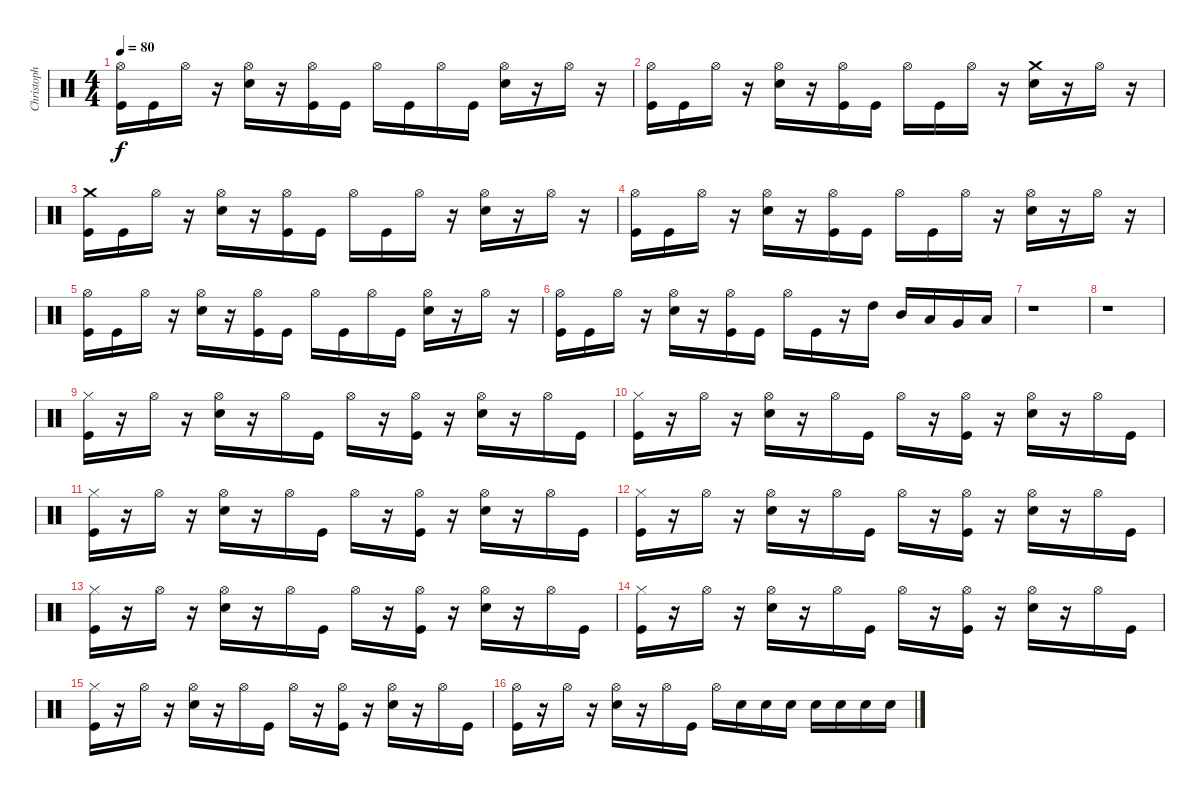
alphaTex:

\track ("Christoph DOOM Schneider" "Christoph ") {instrument percussion}
\staff {score}
\articulation defaults
\ts (4 4)
\tempo 80
\clef neutral
\ks c
("Hi-Hat (open)" "Kick (hit)").16{dy f} "Kick (hit)".16 "Hi-Hat (open)".16 r.16 ("Electric Snare (hit)" "Hi-Hat (open)").16 r.16 ("Hi-Hat (open)" "Kick (hit)").16 "Kick (hit)".16 "Hi-Hat (open)".16 "Kick (hit)".16 "Hi-Hat (open)".16 "Kick (hit)".16 ("Electric Snare (hit)" "Hi-Hat (open)").16 r.16 "Hi-Hat (open)".16 r.16 |
("Hi-Hat (open)" "Kick (hit)").16 "Kick (hit)".16 "Hi-Hat (open)".16 r.16 ("Electric Snare (hit)" "Hi-Hat (open)").16 r.16 ("Hi-Hat (open)" "Kick (hit)").16 "Kick (hit)".16 "Hi-Hat (open)".16 "Kick (hit)".16 "Hi-Hat (open)".16 r.16 ("Electric Snare (hit)" "Crash medium (hit)").16 r.16 "Hi-Hat (open)".16 r.16 |
("Crash medium (hit)" "Kick (hit)").16 "Kick (hit)".16 "Hi-Hat (open)".16 r.16 ("Electric Snare (hit)" "Hi-Hat (open)").16 r.16 ("Hi-Hat (open)" "Kick (hit)").16 "Kick (hit)".16 "Hi-Hat (open)".16 "Kick (hit)".16 "Hi-Hat (open)".16 r.16 ("Electric Snare (hit)" "Hi-Hat (open)").16 r.16 "Hi-Hat (open)".16 r.16 |
("Hi-Hat (open)" "Kick (hit)").16 "Kick (hit)".16 "Hi-Hat (open)".16 r.16 ("Electric Snare (hit)" "Hi-Hat (open)").16 r.16 ("Hi-Hat (open)" "Kick (hit)").16 "Kick (hit)".16 "Hi-Hat (open)".16 "Kick (hit)".16 "Hi-Hat (open)".16 r.16 ("Electric Snare (hit)" "Hi-Hat (open)").16 r.16 "Hi-Hat (open)".16 r.16 |
("Hi-Hat (open)" "Kick (hit)").16 "Kick (hit)".16 "Hi-Hat (open)".16 r.16 ("Electric Snare (hit)" "Hi-Hat (open)").16 r.16 ("Hi-Hat (open)" "Kick (hit)").16 "Kick (hit)".16 "Hi-Hat (open)".16 "Kick (hit)".16 "Hi-Hat (open)".16 "Kick (hit)".16 ("Electric Snare (hit)" "Hi-Hat (open)").16 r.16 "Hi-Hat (open)".16 r.16 |
("Hi-Hat (open)" "Kick (hit)").16 "Kick (hit)".16 "Hi-Hat (open)".16 r.16 ("Electric Snare (hit)" "Hi-Hat (open)").16 r.16 ("Hi-Hat (open)" "Kick (hit)").16 "Kick (hit)".16 "Hi-Hat (open)".16 "Kick (hit)".16 r.16 "High Tom (hit)".16 "Mid Tom (hit)".16 "Low Tom (hit)".16 "Very Low Tom (hit)".16 "Low Floor Tom (hit)".16 |
r.1 |
r.1 |
("Hi-Hat (closed)" "Kick (hit)").16 r.16 "Hi-Hat (open)".16 r.16 ("Electric Snare (hit)" "Hi-Hat (open)").16 r.16 "Hi-Hat (open)".16 "Kick (hit)".16 "Hi-Hat (open)".16 r.16 ("Hi-Hat (open)" "Kick (hit)").16 r.16 ("Electric Snare (hit)" "Hi-Hat (open)").16 r.16 "Hi-Hat (open)".16 "Kick (hit)".16 |
("Hi-Hat (closed)" "Kick (hit)").16 r.16 "Hi-Hat (open)".16 r.16 ("Electric Snare (hit)" "Hi-Hat (open)").16 r.16 "Hi-Hat (open)".16 "Kick (hit)".16 "Hi-Hat (open)".16 r.16 ("Hi-Hat (open)" "Kick (hit)").16 r.16 ("Electric Snare (hit)" "Hi-Hat (open)").16 r.16 "Hi-Hat (open)".16 "Kick (hit)".16 |
("Hi-Hat (closed)" "Kick (hit)").16 r.16 "Hi-Hat (open)".16 r.16 ("Electric Snare (hit)" "Hi-Hat (open)").16 r.16 "Hi-Hat (open)".16 "Kick (hit)".16 "Hi-Hat (open)".16 r.16 ("Hi-Hat (open)" "Kick (hit)").16 r.16 ("Electric Snare (hit)" "Hi-Hat (open)").16 r.16 "Hi-Hat (open)".16 "Kick (hit)".16 |
("Hi-Hat (closed)" "Kick (hit)").16 r.16 "Hi-Hat (open)".16 r.16 ("Electric Snare (hit)" "Hi-Hat (open)").16 r.16 "Hi-Hat (open)".16 "Kick (hit)".16 "Hi-Hat (open)".16 r.16 ("Hi-Hat (open)" "Kick (hit)").16 r.16 ("Electric Snare (hit)" "Hi-Hat (open)").16 r.16 "Hi-Hat (open)".16 "Kick (hit)".16 |
("Hi-Hat (closed)" "Kick (hit)").16 r.16 "Hi-Hat (open)".16 r.16 ("Electric Snare (hit)" "Hi-Hat (open)").16 r.16 "Hi-Hat (open)".16 "Kick (hit)".16 "Hi-Hat (open)".16 r.16 ("Hi-Hat (open)" "Kick (hit)").16 r.16 ("Electric Snare (hit)" "Hi-Hat (open)").16 r.16 "Hi-Hat (open)".16 "Kick (hit)".16 |
("Hi-Hat (closed)" "Kick (hit)").16 r.16 "Hi-Hat (open)".16 r.16 ("Electric Snare (hit)" "Hi-Hat (open)").16 r.16 "Hi-Hat (open)".16 "Kick (hit)".16 "Hi-Hat (open)".16 r.16 ("Hi-Hat (open)" "Kick (hit)").16 r.16 ("Electric Snare (hit)" "Hi-Hat (open)").16 r.16 "Hi-Hat (open)".16 "Kick (hit)".16 |
("Hi-Hat (closed)" "Kick (hit)").16 r.16 "Hi-Hat (open)".16 r.16 ("Electric Snare (hit)" "Hi-Hat (open)").16 r.16 "Hi-Hat (open)".16 "Kick (hit)".16 "Hi-Hat (open)".16 r.16 ("Hi-Hat (open)" "Kick (hit)").16 r.16 ("Electric Snare (hit)" "Hi-Hat (open)").16 r.16 "Hi-Hat (open)".16 "Kick (hit)".16 |
("Hi-Hat (open)" "Kick (hit)").16 r.16 "Hi-Hat (open)".16 r.16 ("Electric Snare (hit)" "Hi-Hat (open)").16 r.16 "Hi-Hat (open)".16 "Kick (hit)".16 "Hi-Hat (open)".16 "Electric Snare (hit)".16 "Electric Snare (hit)".16 "Electric Snare (hit)".16 "Electric Snare (hit)".16 "Electric Snare (hit)".16 "Electric Snare (hit)".16 "Electric Snare (hit)".16
